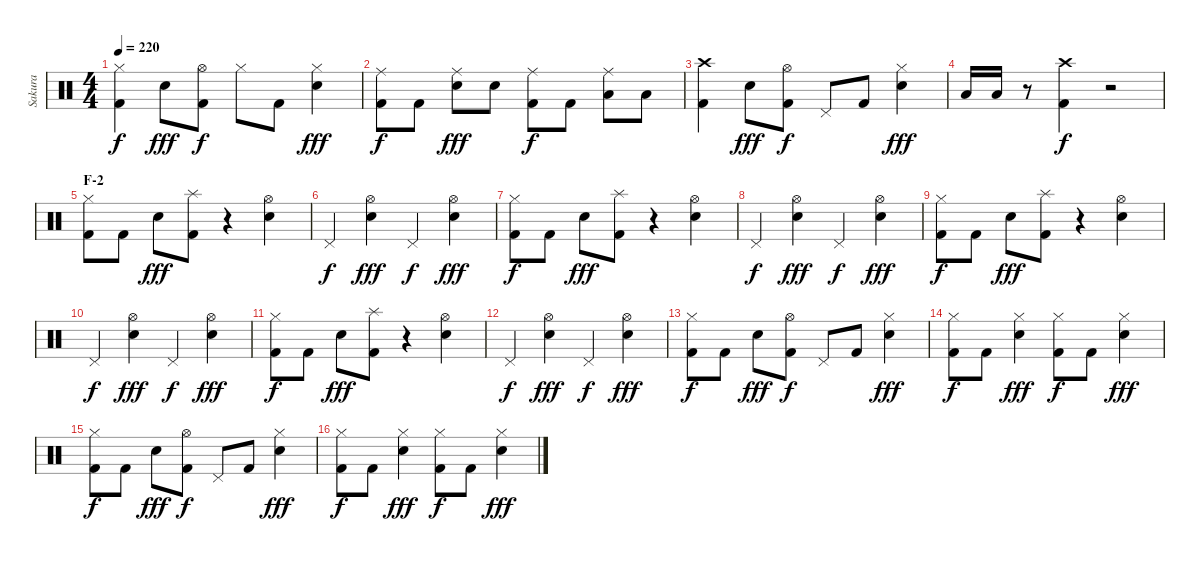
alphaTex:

\track ("Sakura" "Sakura") {instrument percussion}
\staff {score}
\articulation defaults
\ts (4 4)
\tempo 220
\clef neutral
\ks c
("Hi-Hat (closed)" "Kick (hit) 2").4{dy f} "Electric Snare (hit)".8{dy fff} ("Hi-Hat (open)" "Kick (hit) 2").8{dy f} "Hi-Hat (closed)".8 "Kick (hit) 2".8 ("Hi-Hat (closed)" "Electric Snare (hit)").4{dy fff} |
("Ride (middle)" "Kick (hit) 2").8{dy f} "Kick (hit) 2".8 ("Ride (middle)" "Electric Snare (hit)").8{dy fff} "Electric Snare (hit)".8 ("Ride (middle)" "Kick (hit) 2").8{dy f} "Kick (hit) 2".8 ("Ride (middle)" "Low Tom (hit)").8 "Low Tom (hit)".8 |
("Crash high (hit)" "Kick (hit) 2").4 "Electric Snare (hit)".8{dy fff} ("Hi-Hat (open)" "Kick (hit) 2").8{dy f} "Pedal Hi-Hat (hit)".8 "Kick (hit) 2".8 ("Hi-Hat (closed)" "Electric Snare (hit)").4{dy fff} |
"Low Tom (hit)".16 "Low Tom (hit)".16 r.8 ("Crash high (hit)" "Kick (hit) 2").4{dy f} r.2 |
\section ("" "F-2")
("Hi-Hat (closed)" "Kick (hit) 2").8 "Kick (hit) 2".8 "Electric Snare (hit)".8{dy fff} ("Splash (hit)" "Kick (hit) 2").8 r.4 ("Hi-Hat (open)" "Electric Snare (hit)").4 |
"Pedal Hi-Hat (hit)".4{dy f} ("Hi-Hat (open)" "Electric Snare (hit)").4{dy fff} "Pedal Hi-Hat (hit)".4{dy f} ("Hi-Hat (open)" "Electric Snare (hit)").4{dy fff} |
("Hi-Hat (closed)" "Kick (hit) 2").8{dy f} "Kick (hit) 2".8 "Electric Snare (hit)".8{dy fff} ("Splash (hit)" "Kick (hit) 2").8 r.4 ("Hi-Hat (open)" "Electric Snare (hit)").4 |
"Pedal Hi-Hat (hit)".4{dy f} ("Hi-Hat (open)" "Electric Snare (hit)").4{dy fff} "Pedal Hi-Hat (hit)".4{dy f} ("Hi-Hat (open)" "Electric Snare (hit)").4{dy fff} |
("Hi-Hat (closed)" "Kick (hit) 2").8{dy f} "Kick (hit) 2".8 "Electric Snare (hit)".8{dy fff} ("Splash (hit)" "Kick (hit) 2").8 r.4 ("Hi-Hat (open)" "Electric Snare (hit)").4 |
"Pedal Hi-Hat (hit)".4{dy f} ("Hi-Hat (open)" "Electric Snare (hit)").4{dy fff} "Pedal Hi-Hat (hit)".4{dy f} ("Hi-Hat (open)" "Electric Snare (hit)").4{dy fff} |
("Hi-Hat (closed)" "Kick (hit) 2").8{dy f} "Kick (hit) 2".8 "Electric Snare (hit)".8{dy fff} ("Splash (hit)" "Kick (hit) 2").8 r.4 ("Hi-Hat (open)" "Electric Snare (hit)").4 |
"Pedal Hi-Hat (hit)".4{dy f} ("Hi-Hat (open)" "Electric Snare (hit)").4{dy fff} "Pedal Hi-Hat (hit)".4{dy f} ("Hi-Hat (open)" "Electric Snare (hit)").4{dy fff} |
("Hi-Hat (closed)" "Kick (hit) 2").8{dy f} "Kick (hit) 2".8 "Electric Snare (hit)".8{dy fff} ("Hi-Hat (open)" "Kick (hit) 2").8{dy f} "Pedal Hi-Hat (hit)".8 "Kick (hit) 2".8 ("Hi-Hat (closed)" "Electric Snare (hit)").4{dy fff} |
("Hi-Hat (closed)" "Kick (hit) 2").8{dy f} "Kick (hit) 2".8 ("Hi-Hat (closed)" "Electric Snare (hit)").4{dy fff} ("Hi-Hat (closed)" "Kick (hit) 2").8{dy f} "Kick (hit) 2".8 ("Hi-Hat (closed)" "Electric Snare (hit)").4{dy fff} |
("Hi-Hat (closed)" "Kick (hit) 2").8{dy f} "Kick (hit) 2".8 "Electric Snare (hit)".8{dy fff} ("Hi-Hat (open)" "Kick (hit) 2").8{dy f} "Pedal Hi-Hat (hit)".8 "Kick (hit) 2".8 ("Hi-Hat (closed)" "Electric Snare (hit)").4{dy fff} |
("Hi-Hat (closed)" "Kick (hit) 2").8{dy f} "Kick (hit) 2".8 ("Hi-Hat (closed)" "Electric Snare (hit)").4{dy fff} ("Hi-Hat (closed)" "Kick (hit) 2").8{dy f} "Kick (hit) 2".8 ("Hi-Hat (closed)" "Electric Snare (hit)").4{dy fff}
